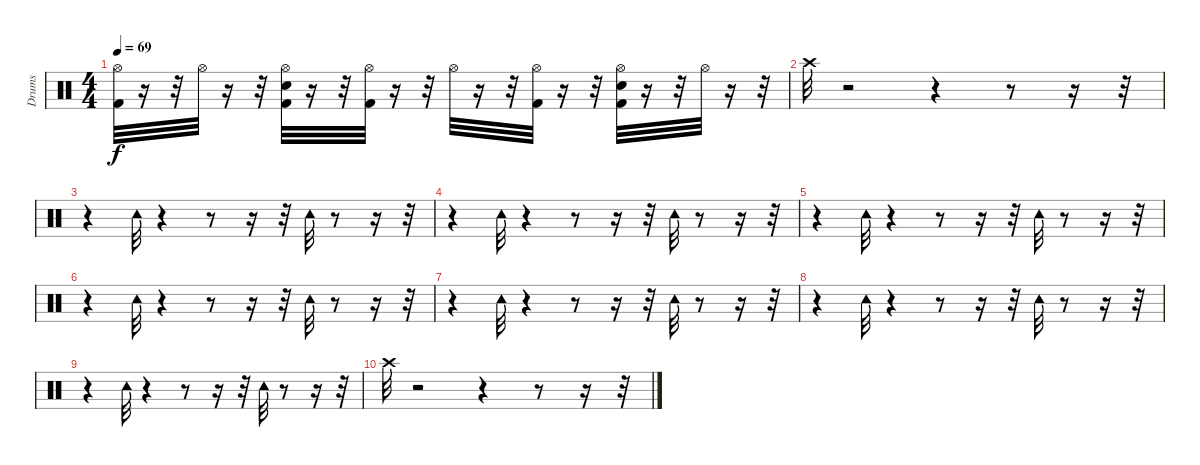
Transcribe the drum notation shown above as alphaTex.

\track ("Drums" "Drums") {instrument percussion}
\staff {score}
\articulation defaults
\ts (4 4)
\tempo 69
\clef neutral
\ks c
("Hi-Hat (open)" "Kick (hit) 2").32{dy f} r.16 r.32 "Hi-Hat (open)".32 r.16 r.32 ("Electric Snare (hit)" "Hi-Hat (open)" "Kick (hit) 2").32 r.16 r.32 ("Kick (hit) 2" "Hi-Hat (open)").32 r.16 r.32 "Hi-Hat (open)".32 r.16 r.32 ("Kick (hit) 2" "Hi-Hat (open)").32 r.16 r.32 ("Electric Snare (hit)" "Kick (hit) 2" "Hi-Hat (open)").32 r.16 r.32 "Hi-Hat (open)".32 r.16 r.32 |
"Crash high (hit)".32 r.2 r.4 r.8 r.16 r.32 |
r.4 "Tambourine (hit)".32 r.4 r.8 r.16 r.32 "Tambourine (hit)".32 r.8 r.16 r.32 |
r.4 "Tambourine (hit)".32 r.4 r.8 r.16 r.32 "Tambourine (hit)".32 r.8 r.16 r.32 |
r.4 "Tambourine (hit)".32 r.4 r.8 r.16 r.32 "Tambourine (hit)".32 r.8 r.16 r.32 |
r.4 "Tambourine (hit)".32 r.4 r.8 r.16 r.32 "Tambourine (hit)".32 r.8 r.16 r.32 |
r.4 "Tambourine (hit)".32 r.4 r.8 r.16 r.32 "Tambourine (hit)".32 r.8 r.16 r.32 |
r.4 "Tambourine (hit)".32 r.4 r.8 r.16 r.32 "Tambourine (hit)".32 r.8 r.16 r.32 |
r.4 "Tambourine (hit)".32 r.4 r.8 r.16 r.32 "Tambourine (hit)".32 r.8 r.16 r.32 |
"Crash high (hit)".32 r.2 r.4 r.8 r.16 r.32
